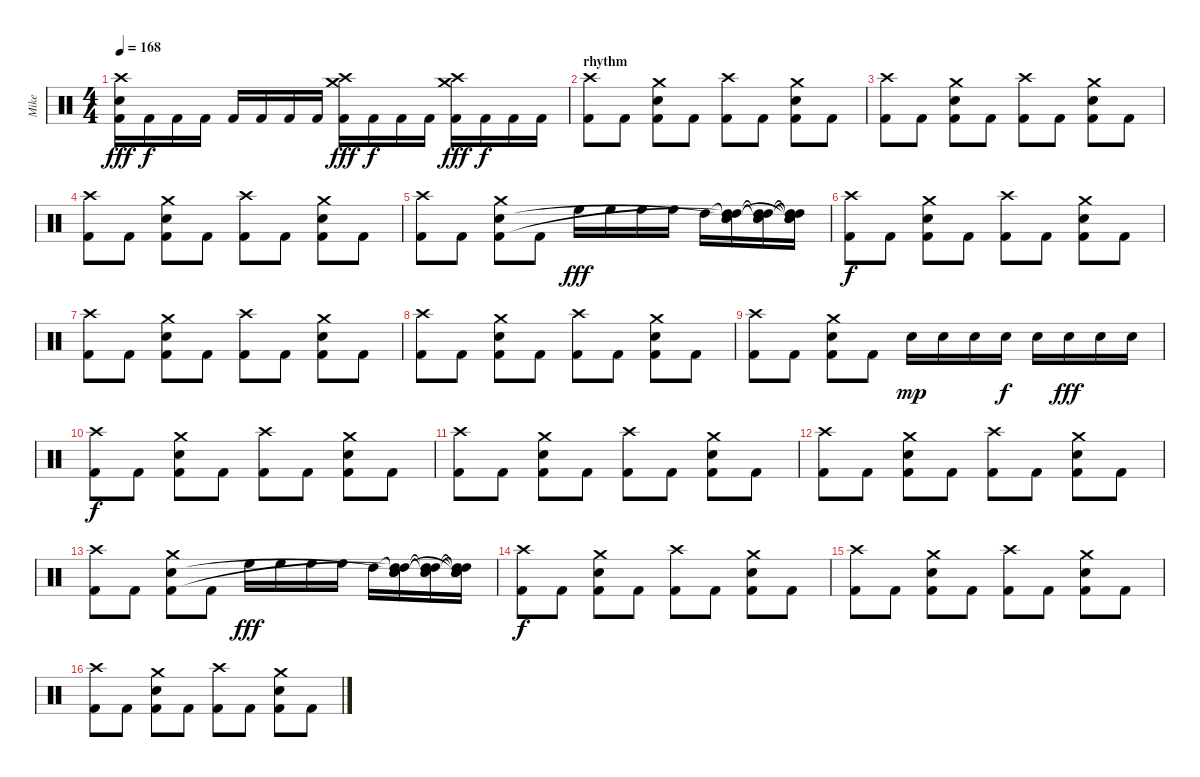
\track ("Mike" "Mike") {instrument percussion}
\staff {score}
\articulation defaults
\ts (4 4)
\tempo 168
\clef neutral
\ks c
("Crash high (hit)" "Snare (hit) 2" "Kick (hit) 2").16{dy fff} "Kick (hit) 2".16{dy f} "Kick (hit) 2".16 "Kick (hit) 2".16 "Kick (hit) 2".16 "Kick (hit) 2".16 "Kick (hit) 2".16 "Kick (hit) 2".16 ("Crash medium (hit)" "Crash high (hit)" "Kick (hit) 2").16{dy fff} "Kick (hit) 2".16{dy f} "Kick (hit) 2".16 "Kick (hit) 2".16 ("Crash high (hit)" "Crash medium (hit)" "Kick (hit) 2").16{dy fff} "Kick (hit) 2".16{dy f} "Kick (hit) 2".16 "Kick (hit) 2".16 |
\section ("" "rhythm")
("Crash high (hit)" "Kick (hit) 2").8 "Kick (hit) 2".8 ("Crash medium (hit)" "Snare (hit) 2" "Kick (hit) 2").8 "Kick (hit) 2".8 ("Crash high (hit)" "Kick (hit) 2").8 "Kick (hit) 2".8 ("Crash medium (hit)" "Snare (hit) 2" "Kick (hit) 2").8 "Kick (hit) 2".8 |
("Crash high (hit)" "Kick (hit) 2").8 "Kick (hit) 2".8 ("Crash medium (hit)" "Snare (hit) 2" "Kick (hit) 2").8 "Kick (hit) 2".8 ("Crash high (hit)" "Kick (hit) 2").8 "Kick (hit) 2".8 ("Crash medium (hit)" "Snare (hit) 2" "Kick (hit) 2").8 "Kick (hit) 2".8 |
("Crash high (hit)" "Kick (hit) 2").8 "Kick (hit) 2".8 ("Crash medium (hit)" "Snare (hit) 2" "Kick (hit) 2").8 "Kick (hit) 2".8 ("Crash high (hit)" "Kick (hit) 2").8 "Kick (hit) 2".8 ("Crash medium (hit)" "Snare (hit) 2" "Kick (hit) 2").8 "Kick (hit) 2".8 |
("Crash high (hit)" "Kick (hit) 2").8 "Kick (hit) 2".8 ("Crash medium (hit)" "Snare (hit) 2" "Kick (hit) 2").8 "Kick (hit) 2".8 "High Floor Tom (hit)".16{dy fff} "High Floor Tom (hit)".16 "High Floor Tom (hit)".16 "High Floor Tom (hit)".16 "High Tom (hit)".16 ("Snare (hit)"{t} "Snare (hit)"{t} "High Tom (hit)"{t} "Snare (hit)" "High Tom (hit)").16 ("High Tom (hit)" "Snare (hit)"{t} "High Tom (hit)"{t} "Snare (hit)"{t}).16 ("Snare (hit)"{t} "High Tom (hit)" "High Tom (hit)"{t} "Snare (hit)"{t} "Snare (hit)"{t} "Snare (hit)").16 |
("Crash high (hit)" "Kick (hit) 2").8{dy f} "Kick (hit) 2".8 ("Crash medium (hit)" "Snare (hit) 2" "Kick (hit) 2").8 "Kick (hit) 2".8 ("Crash high (hit)" "Kick (hit) 2").8 "Kick (hit) 2".8 ("Crash medium (hit)" "Snare (hit) 2" "Kick (hit) 2").8 "Kick (hit) 2".8 |
("Crash high (hit)" "Kick (hit) 2").8 "Kick (hit) 2".8 ("Crash medium (hit)" "Snare (hit) 2" "Kick (hit) 2").8 "Kick (hit) 2".8 ("Crash high (hit)" "Kick (hit) 2").8 "Kick (hit) 2".8 ("Crash medium (hit)" "Snare (hit) 2" "Kick (hit) 2").8 "Kick (hit) 2".8 |
("Crash high (hit)" "Kick (hit) 2").8 "Kick (hit) 2".8 ("Crash medium (hit)" "Snare (hit) 2" "Kick (hit) 2").8 "Kick (hit) 2".8 ("Crash high (hit)" "Kick (hit) 2").8 "Kick (hit) 2".8 ("Crash medium (hit)" "Snare (hit) 2" "Kick (hit) 2").8 "Kick (hit) 2".8 |
("Crash high (hit)" "Kick (hit) 2").8 "Kick (hit) 2".8 ("Crash medium (hit)" "Snare (hit) 2" "Kick (hit) 2").8 "Kick (hit) 2".8 "Snare (hit) 2".16{dy mp} "Snare (hit) 2".16 "Snare (hit) 2".16 "Snare (hit) 2".16{dy f} "Snare (hit) 2".16 "Snare (hit) 2".16{dy fff} "Snare (hit) 2".16 "Snare (hit) 2".16 |
("Crash high (hit)" "Kick (hit) 2").8{dy f} "Kick (hit) 2".8 ("Crash medium (hit)" "Snare (hit) 2" "Kick (hit) 2").8 "Kick (hit) 2".8 ("Crash high (hit)" "Kick (hit) 2").8 "Kick (hit) 2".8 ("Crash medium (hit)" "Snare (hit) 2" "Kick (hit) 2").8 "Kick (hit) 2".8 |
("Crash high (hit)" "Kick (hit) 2").8 "Kick (hit) 2".8 ("Crash medium (hit)" "Snare (hit) 2" "Kick (hit) 2").8 "Kick (hit) 2".8 ("Crash high (hit)" "Kick (hit) 2").8 "Kick (hit) 2".8 ("Crash medium (hit)" "Snare (hit) 2" "Kick (hit) 2").8 "Kick (hit) 2".8 |
("Crash high (hit)" "Kick (hit) 2").8 "Kick (hit) 2".8 ("Crash medium (hit)" "Snare (hit) 2" "Kick (hit) 2").8 "Kick (hit) 2".8 ("Crash high (hit)" "Kick (hit) 2").8 "Kick (hit) 2".8 ("Crash medium (hit)" "Snare (hit) 2" "Kick (hit) 2").8 "Kick (hit) 2".8 |
("Crash high (hit)" "Kick (hit) 2").8 "Kick (hit) 2".8 ("Crash medium (hit)" "Snare (hit) 2" "Kick (hit) 2").8 "Kick (hit) 2".8 "High Floor Tom (hit)".16{dy fff} "High Floor Tom (hit)".16 "High Floor Tom (hit)".16 "High Floor Tom (hit)".16 "High Tom (hit)".16 ("Snare (hit)"{t} "Snare (hit)"{t} "High Tom (hit)"{t} "Snare (hit)" "High Tom (hit)").16 ("High Tom (hit)" "Snare (hit)"{t} "High Tom (hit)"{t} "Snare (hit)"{t}).16 ("Snare (hit)"{t} "High Tom (hit)" "High Tom (hit)"{t} "Snare (hit)"{t} "Snare (hit)"{t} "Snare (hit)").16 |
("Crash high (hit)" "Kick (hit) 2").8{dy f} "Kick (hit) 2".8 ("Crash medium (hit)" "Snare (hit) 2" "Kick (hit) 2").8 "Kick (hit) 2".8 ("Crash high (hit)" "Kick (hit) 2").8 "Kick (hit) 2".8 ("Crash medium (hit)" "Snare (hit) 2" "Kick (hit) 2").8 "Kick (hit) 2".8 |
("Crash high (hit)" "Kick (hit) 2").8 "Kick (hit) 2".8 ("Crash medium (hit)" "Snare (hit) 2" "Kick (hit) 2").8 "Kick (hit) 2".8 ("Crash high (hit)" "Kick (hit) 2").8 "Kick (hit) 2".8 ("Crash medium (hit)" "Snare (hit) 2" "Kick (hit) 2").8 "Kick (hit) 2".8 |
("Crash high (hit)" "Kick (hit) 2").8 "Kick (hit) 2".8 ("Crash medium (hit)" "Snare (hit) 2" "Kick (hit) 2").8 "Kick (hit) 2".8 ("Crash high (hit)" "Kick (hit) 2").8 "Kick (hit) 2".8 ("Crash medium (hit)" "Snare (hit) 2" "Kick (hit) 2").8 "Kick (hit) 2".8
